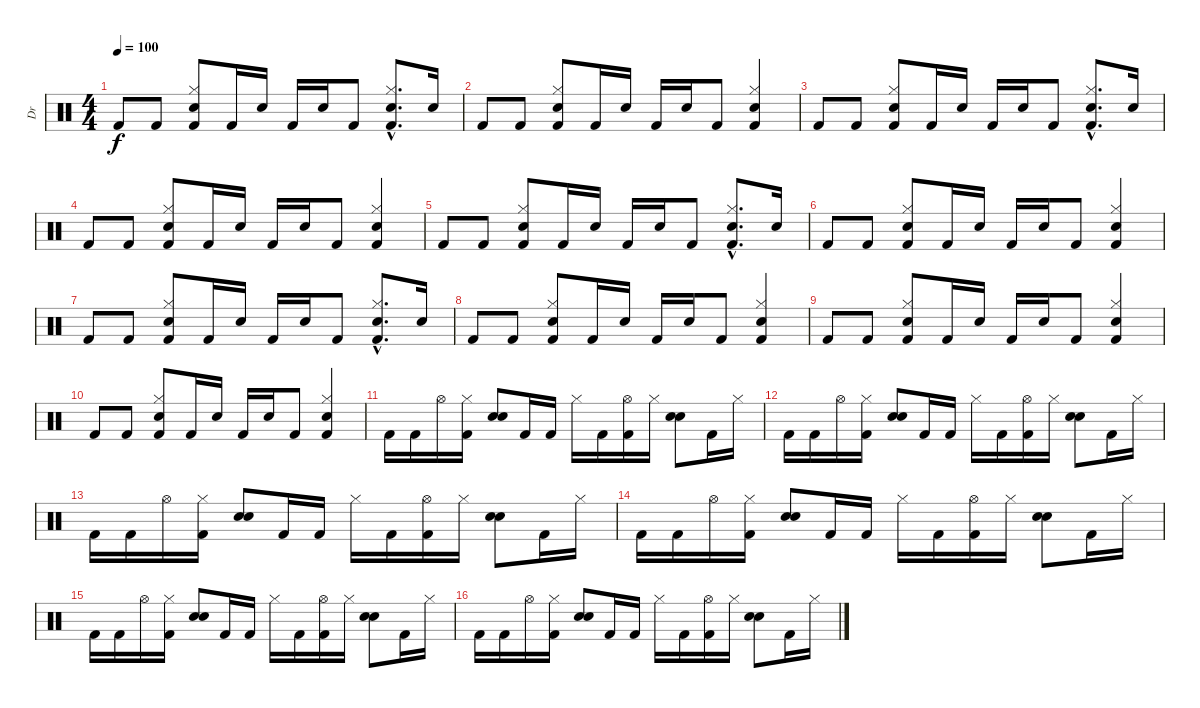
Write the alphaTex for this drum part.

\track ("Dr" "Dr") {instrument percussion}
\staff {score}
\articulation defaults
\ts (4 4)
\tempo 100
\clef neutral
\ks c "Kick (hit) 2".8{dy f} "Kick (hit) 2".8
("Hi-Hat (closed)" "Electric Snare (hit)" "Kick (hit) 2").8 "Kick (hit) 2".16 "Electric Snare (hit)".16 "Kick (hit) 2".16 "Electric Snare (hit)".16 "Kick (hit) 2".8 ("Hi-Hat (closed)"{hac} "Electric Snare (hit)"{hac} "Kick (hit) 2"{hac}).8{d} "Electric Snare (hit)".16 |
"Kick (hit) 2".8 "Kick (hit) 2".8 ("Hi-Hat (closed)" "Electric Snare (hit)" "Kick (hit) 2").8 "Kick (hit) 2".16 "Electric Snare (hit)".16 "Kick (hit) 2".16 "Electric Snare (hit)".16 "Kick (hit) 2".8 ("Hi-Hat (closed)" "Electric Snare (hit)" "Kick (hit) 2").4 |
"Kick (hit) 2".8 "Kick (hit) 2".8 ("Hi-Hat (closed)" "Electric Snare (hit)" "Kick (hit) 2").8 "Kick (hit) 2".16 "Electric Snare (hit)".16 "Kick (hit) 2".16 "Electric Snare (hit)".16 "Kick (hit) 2".8 ("Hi-Hat (closed)"{hac} "Electric Snare (hit)"{hac} "Kick (hit) 2"{hac}).8{d} "Electric Snare (hit)".16 |
"Kick (hit) 2".8 "Kick (hit) 2".8 ("Hi-Hat (closed)" "Electric Snare (hit)" "Kick (hit) 2").8 "Kick (hit) 2".16 "Electric Snare (hit)".16 "Kick (hit) 2".16 "Electric Snare (hit)".16 "Kick (hit) 2".8 ("Hi-Hat (closed)" "Electric Snare (hit)" "Kick (hit) 2").4 |
"Kick (hit) 2".8 "Kick (hit) 2".8 ("Hi-Hat (closed)" "Electric Snare (hit)" "Kick (hit) 2").8 "Kick (hit) 2".16 "Electric Snare (hit)".16 "Kick (hit) 2".16 "Electric Snare (hit)".16 "Kick (hit) 2".8 ("Hi-Hat (closed)"{hac} "Electric Snare (hit)"{hac} "Kick (hit) 2"{hac}).8{d} "Electric Snare (hit)".16 |
"Kick (hit) 2".8 "Kick (hit) 2".8 ("Hi-Hat (closed)" "Electric Snare (hit)" "Kick (hit) 2").8 "Kick (hit) 2".16 "Electric Snare (hit)".16 "Kick (hit) 2".16 "Electric Snare (hit)".16 "Kick (hit) 2".8 ("Hi-Hat (closed)" "Electric Snare (hit)" "Kick (hit) 2").4 |
"Kick (hit) 2".8 "Kick (hit) 2".8 ("Hi-Hat (closed)" "Electric Snare (hit)" "Kick (hit) 2").8 "Kick (hit) 2".16 "Electric Snare (hit)".16 "Kick (hit) 2".16 "Electric Snare (hit)".16 "Kick (hit) 2".8 ("Hi-Hat (closed)"{hac} "Electric Snare (hit)"{hac} "Kick (hit) 2"{hac}).8{d} "Electric Snare (hit)".16 |
"Kick (hit) 2".8 "Kick (hit) 2".8 ("Hi-Hat (closed)" "Electric Snare (hit)" "Kick (hit) 2").8 "Kick (hit) 2".16 "Electric Snare (hit)".16 "Kick (hit) 2".16 "Electric Snare (hit)".16 "Kick (hit) 2".8 ("Hi-Hat (closed)" "Electric Snare (hit)" "Kick (hit) 2").4 |
"Kick (hit) 2".8 "Kick (hit) 2".8 ("Hi-Hat (closed)" "Electric Snare (hit)" "Kick (hit) 2").8 "Kick (hit) 2".16 "Electric Snare (hit)".16 "Kick (hit) 2".16 "Electric Snare (hit)".16 "Kick (hit) 2".8 ("Hi-Hat (closed)" "Electric Snare (hit)" "Kick (hit) 2").4 |
"Kick (hit) 2".8 "Kick (hit) 2".8 ("Hi-Hat (closed)" "Electric Snare (hit)" "Kick (hit) 2").8 "Kick (hit) 2".16 "Electric Snare (hit)".16 "Kick (hit) 2".16 "Electric Snare (hit)".16 "Kick (hit) 2".8 ("Hi-Hat (closed)" "Electric Snare (hit)" "Kick (hit) 2").4 |
"Kick (hit) 2".16 "Kick (hit) 2".16 "Hi-Hat (open)".16 ("Hi-Hat (closed)" "Kick (hit) 2").16 ("Electric Snare (hit)" "Hand Clap (hit)").8 "Kick (hit) 2".16 "Kick (hit) 2".16 "Hi-Hat (closed)".16 "Kick (hit) 2".16 ("Hi-Hat (open)" "Kick (hit) 2").16 "Hi-Hat (closed)".16 ("Electric Snare (hit)" "Hand Clap (hit)").8 "Kick (hit) 2".16 "Hi-Hat (closed)".16 |
"Kick (hit) 2".16 "Kick (hit) 2".16 "Hi-Hat (open)".16 ("Hi-Hat (closed)" "Kick (hit) 2").16 ("Electric Snare (hit)" "Hand Clap (hit)").8 "Kick (hit) 2".16 "Kick (hit) 2".16 "Hi-Hat (closed)".16 "Kick (hit) 2".16 ("Hi-Hat (open)" "Kick (hit) 2").16 "Hi-Hat (closed)".16 ("Electric Snare (hit)" "Hand Clap (hit)").8 "Kick (hit) 2".16 "Hi-Hat (closed)".16 |
"Kick (hit) 2".16 "Kick (hit) 2".16 "Hi-Hat (open)".16 ("Hi-Hat (closed)" "Kick (hit) 2").16 ("Electric Snare (hit)" "Hand Clap (hit)").8 "Kick (hit) 2".16 "Kick (hit) 2".16 "Hi-Hat (closed)".16 "Kick (hit) 2".16 ("Hi-Hat (open)" "Kick (hit) 2").16 "Hi-Hat (closed)".16 ("Electric Snare (hit)" "Hand Clap (hit)").8 "Kick (hit) 2".16 "Hi-Hat (closed)".16 |
"Kick (hit) 2".16 "Kick (hit) 2".16 "Hi-Hat (open)".16 ("Hi-Hat (closed)" "Kick (hit) 2").16 ("Electric Snare (hit)" "Hand Clap (hit)").8 "Kick (hit) 2".16 "Kick (hit) 2".16 "Hi-Hat (closed)".16 "Kick (hit) 2".16 ("Hi-Hat (open)" "Kick (hit) 2").16 "Hi-Hat (closed)".16 ("Electric Snare (hit)" "Hand Clap (hit)").8 "Kick (hit) 2".16 "Hi-Hat (closed)".16 |
"Kick (hit) 2".16 "Kick (hit) 2".16 "Hi-Hat (open)".16 ("Hi-Hat (closed)" "Kick (hit) 2").16 ("Electric Snare (hit)" "Hand Clap (hit)").8 "Kick (hit) 2".16 "Kick (hit) 2".16 "Hi-Hat (closed)".16 "Kick (hit) 2".16 ("Hi-Hat (open)" "Kick (hit) 2").16 "Hi-Hat (closed)".16 ("Electric Snare (hit)" "Hand Clap (hit)").8 "Kick (hit) 2".16 "Hi-Hat (closed)".16 |
"Kick (hit) 2".16 "Kick (hit) 2".16 "Hi-Hat (open)".16 ("Hi-Hat (closed)" "Kick (hit) 2").16 ("Electric Snare (hit)" "Hand Clap (hit)").8 "Kick (hit) 2".16 "Kick (hit) 2".16 "Hi-Hat (closed)".16 "Kick (hit) 2".16 ("Hi-Hat (open)" "Kick (hit) 2").16 "Hi-Hat (closed)".16 ("Electric Snare (hit)" "Hand Clap (hit)").8 "Kick (hit) 2".16 "Hi-Hat (closed)".16
